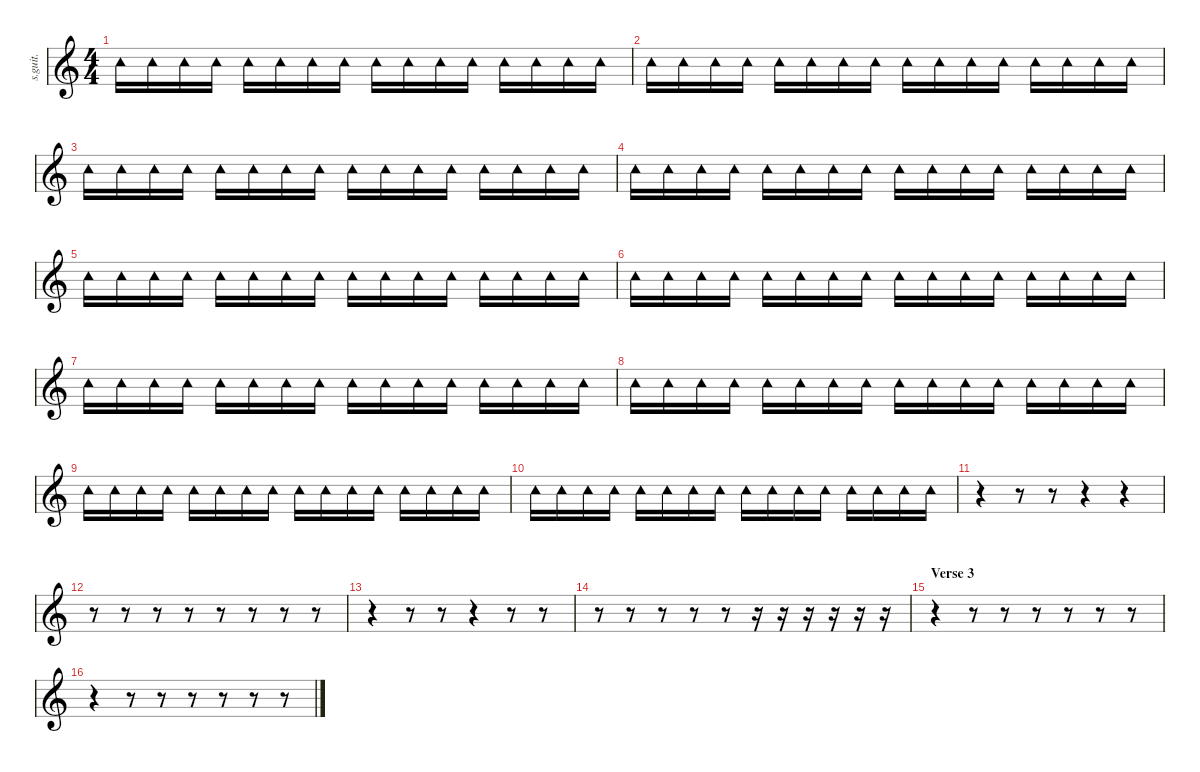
\defaultSystemsLayout 4
\hideDynamics
\bracketExtendMode nobrackets
\track ("Chad Channing - Tambourine" "s.guit.") {instrument percussion}
\staff {score}
\articulation defaults
\ts (4 4)
\tempo (133 hide)
\clef g2
\ks c "Tambourine (hit)".16{lyrics (0 "") lyrics (1 "") lyrics (2 "") lyrics (3 "") lyrics (4 "") dy f} "Tambourine (hit)".16{lyrics (0 "") lyrics (1 "") lyrics (2 "") lyrics (3 "") lyrics (4 "")} "Tambourine (hit)".16{lyrics (0 "") lyrics (1 "") lyrics (2 "") lyrics (3 "") lyrics (4 "")} "Tambourine (hit)".16{lyrics (0 "") lyrics (1 "") lyrics (2 "") lyrics (3 "") lyrics (4 "")} "Tambourine (hit)".16{lyrics (0 "") lyrics (1 "") lyrics (2 "") lyrics (3 "") lyrics (4 "")} "Tambourine (hit)".16{lyrics (0 "") lyrics (1 "") lyrics (2 "") lyrics (3 "") lyrics (4 "")} "Tambourine (hit)".16{lyrics (0 "") lyrics (1 "") lyrics (2 "") lyrics (3 "") lyrics (4 "")} "Tambourine (hit)".16{lyrics (0 "") lyrics (1 "") lyrics (2 "") lyrics (3 "") lyrics (4 "")} "Tambourine (hit)".16{lyrics (0 "") lyrics (1 "") lyrics (2 "") lyrics (3 "") lyrics (4 "")} "Tambourine (hit)".16{lyrics (0 "") lyrics (1 "") lyrics (2 "") lyrics (3 "") lyrics (4 "")} "Tambourine (hit)".16{lyrics (0 "") lyrics (1 "") lyrics (2 "") lyrics (3 "") lyrics (4 "")} "Tambourine (hit)".16{lyrics (0 "") lyrics (1 "") lyrics (2 "") lyrics (3 "") lyrics (4 "")} "Tambourine (hit)".16{lyrics (0 "") lyrics (1 "") lyrics (2 "") lyrics (3 "") lyrics (4 "")} "Tambourine (hit)".16{lyrics (0 "") lyrics (1 "") lyrics (2 "") lyrics (3 "") lyrics (4 "")} "Tambourine (hit)".16{lyrics (0 "") lyrics (1 "") lyrics (2 "") lyrics (3 "") lyrics (4 "")} "Tambourine (hit)".16{lyrics (0 "") lyrics (1 "") lyrics (2 "") lyrics (3 "") lyrics (4 "")}
|
"Tambourine (hit)".16{lyrics (0 "") lyrics (1 "") lyrics (2 "") lyrics (3 "") lyrics (4 "")} "Tambourine (hit)".16{lyrics (0 "") lyrics (1 "") lyrics (2 "") lyrics (3 "") lyrics (4 "")} "Tambourine (hit)".16{lyrics (0 "") lyrics (1 "") lyrics (2 "") lyrics (3 "") lyrics (4 "")} "Tambourine (hit)".16{lyrics (0 "") lyrics (1 "") lyrics (2 "") lyrics (3 "") lyrics (4 "")} "Tambourine (hit)".16{lyrics (0 "") lyrics (1 "") lyrics (2 "") lyrics (3 "") lyrics (4 "")} "Tambourine (hit)".16{lyrics (0 "") lyrics (1 "") lyrics (2 "") lyrics (3 "") lyrics (4 "")} "Tambourine (hit)".16{lyrics (0 "") lyrics (1 "") lyrics (2 "") lyrics (3 "") lyrics (4 "")} "Tambourine (hit)".16{lyrics (0 "") lyrics (1 "") lyrics (2 "") lyrics (3 "") lyrics (4 "")} "Tambourine (hit)".16{lyrics (0 "") lyrics (1 "") lyrics (2 "") lyrics (3 "") lyrics (4 "")} "Tambourine (hit)".16{lyrics (0 "") lyrics (1 "") lyrics (2 "") lyrics (3 "") lyrics (4 "")} "Tambourine (hit)".16{lyrics (0 "") lyrics (1 "") lyrics (2 "") lyrics (3 "") lyrics (4 "")} "Tambourine (hit)".16{lyrics (0 "") lyrics (1 "") lyrics (2 "") lyrics (3 "") lyrics (4 "")} "Tambourine (hit)".16{lyrics (0 "") lyrics (1 "") lyrics (2 "") lyrics (3 "") lyrics (4 "")} "Tambourine (hit)".16{lyrics (0 "") lyrics (1 "") lyrics (2 "") lyrics (3 "") lyrics (4 "")} "Tambourine (hit)".16{lyrics (0 "") lyrics (1 "") lyrics (2 "") lyrics (3 "") lyrics (4 "")} "Tambourine (hit)".16{lyrics (0 "") lyrics (1 "") lyrics (2 "") lyrics (3 "") lyrics (4 "")} |
"Tambourine (hit)".16{lyrics (0 "") lyrics (1 "") lyrics (2 "") lyrics (3 "") lyrics (4 "")} "Tambourine (hit)".16{lyrics (0 "") lyrics (1 "") lyrics (2 "") lyrics (3 "") lyrics (4 "")} "Tambourine (hit)".16{lyrics (0 "") lyrics (1 "") lyrics (2 "") lyrics (3 "") lyrics (4 "")} "Tambourine (hit)".16{lyrics (0 "") lyrics (1 "") lyrics (2 "") lyrics (3 "") lyrics (4 "")} "Tambourine (hit)".16{lyrics (0 "") lyrics (1 "") lyrics (2 "") lyrics (3 "") lyrics (4 "")} "Tambourine (hit)".16{lyrics (0 "") lyrics (1 "") lyrics (2 "") lyrics (3 "") lyrics (4 "")} "Tambourine (hit)".16{lyrics (0 "") lyrics (1 "") lyrics (2 "") lyrics (3 "") lyrics (4 "")} "Tambourine (hit)".16{lyrics (0 "") lyrics (1 "") lyrics (2 "") lyrics (3 "") lyrics (4 "")} "Tambourine (hit)".16{lyrics (0 "") lyrics (1 "") lyrics (2 "") lyrics (3 "") lyrics (4 "")} "Tambourine (hit)".16{lyrics (0 "") lyrics (1 "") lyrics (2 "") lyrics (3 "") lyrics (4 "")} "Tambourine (hit)".16{lyrics (0 "") lyrics (1 "") lyrics (2 "") lyrics (3 "") lyrics (4 "")} "Tambourine (hit)".16{lyrics (0 "") lyrics (1 "") lyrics (2 "") lyrics (3 "") lyrics (4 "")} "Tambourine (hit)".16{lyrics (0 "") lyrics (1 "") lyrics (2 "") lyrics (3 "") lyrics (4 "")} "Tambourine (hit)".16{lyrics (0 "") lyrics (1 "") lyrics (2 "") lyrics (3 "") lyrics (4 "")} "Tambourine (hit)".16{lyrics (0 "") lyrics (1 "") lyrics (2 "") lyrics (3 "") lyrics (4 "")} "Tambourine (hit)".16{lyrics (0 "") lyrics (1 "") lyrics (2 "") lyrics (3 "") lyrics (4 "")} |
"Tambourine (hit)".16{lyrics (0 "") lyrics (1 "") lyrics (2 "") lyrics (3 "") lyrics (4 "")} "Tambourine (hit)".16{lyrics (0 "") lyrics (1 "") lyrics (2 "") lyrics (3 "") lyrics (4 "")} "Tambourine (hit)".16{lyrics (0 "") lyrics (1 "") lyrics (2 "") lyrics (3 "") lyrics (4 "")} "Tambourine (hit)".16{lyrics (0 "") lyrics (1 "") lyrics (2 "") lyrics (3 "") lyrics (4 "")} "Tambourine (hit)".16{lyrics (0 "") lyrics (1 "") lyrics (2 "") lyrics (3 "") lyrics (4 "")} "Tambourine (hit)".16{lyrics (0 "") lyrics (1 "") lyrics (2 "") lyrics (3 "") lyrics (4 "")} "Tambourine (hit)".16{lyrics (0 "") lyrics (1 "") lyrics (2 "") lyrics (3 "") lyrics (4 "")} "Tambourine (hit)".16{lyrics (0 "") lyrics (1 "") lyrics (2 "") lyrics (3 "") lyrics (4 "")} "Tambourine (hit)".16{lyrics (0 "") lyrics (1 "") lyrics (2 "") lyrics (3 "") lyrics (4 "")} "Tambourine (hit)".16{lyrics (0 "") lyrics (1 "") lyrics (2 "") lyrics (3 "") lyrics (4 "")} "Tambourine (hit)".16{lyrics (0 "") lyrics (1 "") lyrics (2 "") lyrics (3 "") lyrics (4 "")} "Tambourine (hit)".16{lyrics (0 "") lyrics (1 "") lyrics (2 "") lyrics (3 "") lyrics (4 "")} "Tambourine (hit)".16{lyrics (0 "") lyrics (1 "") lyrics (2 "") lyrics (3 "") lyrics (4 "")} "Tambourine (hit)".16{lyrics (0 "") lyrics (1 "") lyrics (2 "") lyrics (3 "") lyrics (4 "")} "Tambourine (hit)".16{lyrics (0 "") lyrics (1 "") lyrics (2 "") lyrics (3 "") lyrics (4 "")} "Tambourine (hit)".16{lyrics (0 "") lyrics (1 "") lyrics (2 "") lyrics (3 "") lyrics (4 "")} |
"Tambourine (hit)".16{lyrics (0 "") lyrics (1 "") lyrics (2 "") lyrics (3 "") lyrics (4 "")} "Tambourine (hit)".16{lyrics (0 "") lyrics (1 "") lyrics (2 "") lyrics (3 "") lyrics (4 "")} "Tambourine (hit)".16{lyrics (0 "") lyrics (1 "") lyrics (2 "") lyrics (3 "") lyrics (4 "")} "Tambourine (hit)".16{lyrics (0 "") lyrics (1 "") lyrics (2 "") lyrics (3 "") lyrics (4 "")} "Tambourine (hit)".16{lyrics (0 "") lyrics (1 "") lyrics (2 "") lyrics (3 "") lyrics (4 "")} "Tambourine (hit)".16{lyrics (0 "") lyrics (1 "") lyrics (2 "") lyrics (3 "") lyrics (4 "")} "Tambourine (hit)".16{lyrics (0 "") lyrics (1 "") lyrics (2 "") lyrics (3 "") lyrics (4 "")} "Tambourine (hit)".16{lyrics (0 "") lyrics (1 "") lyrics (2 "") lyrics (3 "") lyrics (4 "")} "Tambourine (hit)".16{lyrics (0 "") lyrics (1 "") lyrics (2 "") lyrics (3 "") lyrics (4 "")} "Tambourine (hit)".16{lyrics (0 "") lyrics (1 "") lyrics (2 "") lyrics (3 "") lyrics (4 "")} "Tambourine (hit)".16{lyrics (0 "") lyrics (1 "") lyrics (2 "") lyrics (3 "") lyrics (4 "")} "Tambourine (hit)".16{lyrics (0 "") lyrics (1 "") lyrics (2 "") lyrics (3 "") lyrics (4 "")} "Tambourine (hit)".16{lyrics (0 "") lyrics (1 "") lyrics (2 "") lyrics (3 "") lyrics (4 "")} "Tambourine (hit)".16{lyrics (0 "") lyrics (1 "") lyrics (2 "") lyrics (3 "") lyrics (4 "")} "Tambourine (hit)".16{lyrics (0 "") lyrics (1 "") lyrics (2 "") lyrics (3 "") lyrics (4 "")} "Tambourine (hit)".16{lyrics (0 "") lyrics (1 "") lyrics (2 "") lyrics (3 "") lyrics (4 "")} |
"Tambourine (hit)".16{lyrics (0 "") lyrics (1 "") lyrics (2 "") lyrics (3 "") lyrics (4 "")} "Tambourine (hit)".16{lyrics (0 "") lyrics (1 "") lyrics (2 "") lyrics (3 "") lyrics (4 "")} "Tambourine (hit)".16{lyrics (0 "") lyrics (1 "") lyrics (2 "") lyrics (3 "") lyrics (4 "")} "Tambourine (hit)".16{lyrics (0 "") lyrics (1 "") lyrics (2 "") lyrics (3 "") lyrics (4 "")} "Tambourine (hit)".16{lyrics (0 "") lyrics (1 "") lyrics (2 "") lyrics (3 "") lyrics (4 "")} "Tambourine (hit)".16{lyrics (0 "") lyrics (1 "") lyrics (2 "") lyrics (3 "") lyrics (4 "")} "Tambourine (hit)".16{lyrics (0 "") lyrics (1 "") lyrics (2 "") lyrics (3 "") lyrics (4 "")} "Tambourine (hit)".16{lyrics (0 "") lyrics (1 "") lyrics (2 "") lyrics (3 "") lyrics (4 "")} "Tambourine (hit)".16{lyrics (0 "") lyrics (1 "") lyrics (2 "") lyrics (3 "") lyrics (4 "")} "Tambourine (hit)".16{lyrics (0 "") lyrics (1 "") lyrics (2 "") lyrics (3 "") lyrics (4 "")} "Tambourine (hit)".16{lyrics (0 "") lyrics (1 "") lyrics (2 "") lyrics (3 "") lyrics (4 "")} "Tambourine (hit)".16{lyrics (0 "") lyrics (1 "") lyrics (2 "") lyrics (3 "") lyrics (4 "")} "Tambourine (hit)".16{lyrics (0 "") lyrics (1 "") lyrics (2 "") lyrics (3 "") lyrics (4 "")} "Tambourine (hit)".16{lyrics (0 "") lyrics (1 "") lyrics (2 "") lyrics (3 "") lyrics (4 "")} "Tambourine (hit)".16{lyrics (0 "") lyrics (1 "") lyrics (2 "") lyrics (3 "") lyrics (4 "")} "Tambourine (hit)".16{lyrics (0 "") lyrics (1 "") lyrics (2 "") lyrics (3 "") lyrics (4 "")} |
"Tambourine (hit)".16{lyrics (0 "") lyrics (1 "") lyrics (2 "") lyrics (3 "") lyrics (4 "")} "Tambourine (hit)".16{lyrics (0 "") lyrics (1 "") lyrics (2 "") lyrics (3 "") lyrics (4 "")} "Tambourine (hit)".16{lyrics (0 "") lyrics (1 "") lyrics (2 "") lyrics (3 "") lyrics (4 "")} "Tambourine (hit)".16{lyrics (0 "") lyrics (1 "") lyrics (2 "") lyrics (3 "") lyrics (4 "")} "Tambourine (hit)".16{lyrics (0 "") lyrics (1 "") lyrics (2 "") lyrics (3 "") lyrics (4 "")} "Tambourine (hit)".16{lyrics (0 "") lyrics (1 "") lyrics (2 "") lyrics (3 "") lyrics (4 "")} "Tambourine (hit)".16{lyrics (0 "") lyrics (1 "") lyrics (2 "") lyrics (3 "") lyrics (4 "")} "Tambourine (hit)".16{lyrics (0 "") lyrics (1 "") lyrics (2 "") lyrics (3 "") lyrics (4 "")} "Tambourine (hit)".16{lyrics (0 "") lyrics (1 "") lyrics (2 "") lyrics (3 "") lyrics (4 "")} "Tambourine (hit)".16{lyrics (0 "") lyrics (1 "") lyrics (2 "") lyrics (3 "") lyrics (4 "")} "Tambourine (hit)".16{lyrics (0 "") lyrics (1 "") lyrics (2 "") lyrics (3 "") lyrics (4 "")} "Tambourine (hit)".16{lyrics (0 "") lyrics (1 "") lyrics (2 "") lyrics (3 "") lyrics (4 "")} "Tambourine (hit)".16{lyrics (0 "") lyrics (1 "") lyrics (2 "") lyrics (3 "") lyrics (4 "")} "Tambourine (hit)".16{lyrics (0 "") lyrics (1 "") lyrics (2 "") lyrics (3 "") lyrics (4 "")} "Tambourine (hit)".16{lyrics (0 "") lyrics (1 "") lyrics (2 "") lyrics (3 "") lyrics (4 "")} "Tambourine (hit)".16{lyrics (0 "") lyrics (1 "") lyrics (2 "") lyrics (3 "") lyrics (4 "")} |
"Tambourine (hit)".16{lyrics (0 "") lyrics (1 "") lyrics (2 "") lyrics (3 "") lyrics (4 "")} "Tambourine (hit)".16{lyrics (0 "") lyrics (1 "") lyrics (2 "") lyrics (3 "") lyrics (4 "")} "Tambourine (hit)".16{lyrics (0 "") lyrics (1 "") lyrics (2 "") lyrics (3 "") lyrics (4 "")} "Tambourine (hit)".16{lyrics (0 "") lyrics (1 "") lyrics (2 "") lyrics (3 "") lyrics (4 "")} "Tambourine (hit)".16{lyrics (0 "") lyrics (1 "") lyrics (2 "") lyrics (3 "") lyrics (4 "")} "Tambourine (hit)".16{lyrics (0 "") lyrics (1 "") lyrics (2 "") lyrics (3 "") lyrics (4 "")} "Tambourine (hit)".16{lyrics (0 "") lyrics (1 "") lyrics (2 "") lyrics (3 "") lyrics (4 "")} "Tambourine (hit)".16{lyrics (0 "") lyrics (1 "") lyrics (2 "") lyrics (3 "") lyrics (4 "")} "Tambourine (hit)".16{lyrics (0 "") lyrics (1 "") lyrics (2 "") lyrics (3 "") lyrics (4 "")} "Tambourine (hit)".16{lyrics (0 "") lyrics (1 "") lyrics (2 "") lyrics (3 "") lyrics (4 "")} "Tambourine (hit)".16{lyrics (0 "") lyrics (1 "") lyrics (2 "") lyrics (3 "") lyrics (4 "")} "Tambourine (hit)".16{lyrics (0 "") lyrics (1 "") lyrics (2 "") lyrics (3 "") lyrics (4 "")} "Tambourine (hit)".16{lyrics (0 "") lyrics (1 "") lyrics (2 "") lyrics (3 "") lyrics (4 "")} "Tambourine (hit)".16{lyrics (0 "") lyrics (1 "") lyrics (2 "") lyrics (3 "") lyrics (4 "")} "Tambourine (hit)".16{lyrics (0 "") lyrics (1 "") lyrics (2 "") lyrics (3 "") lyrics (4 "")} "Tambourine (hit)".16{lyrics (0 "") lyrics (1 "") lyrics (2 "") lyrics (3 "") lyrics (4 "")} |
"Tambourine (hit)".16{lyrics (0 "") lyrics (1 "") lyrics (2 "") lyrics (3 "") lyrics (4 "")} "Tambourine (hit)".16{lyrics (0 "") lyrics (1 "") lyrics (2 "") lyrics (3 "") lyrics (4 "")} "Tambourine (hit)".16{lyrics (0 "") lyrics (1 "") lyrics (2 "") lyrics (3 "") lyrics (4 "")} "Tambourine (hit)".16{lyrics (0 "") lyrics (1 "") lyrics (2 "") lyrics (3 "") lyrics (4 "")} "Tambourine (hit)".16{lyrics (0 "") lyrics (1 "") lyrics (2 "") lyrics (3 "") lyrics (4 "")} "Tambourine (hit)".16{lyrics (0 "") lyrics (1 "") lyrics (2 "") lyrics (3 "") lyrics (4 "")} "Tambourine (hit)".16{lyrics (0 "") lyrics (1 "") lyrics (2 "") lyrics (3 "") lyrics (4 "")} "Tambourine (hit)".16{lyrics (0 "") lyrics (1 "") lyrics (2 "") lyrics (3 "") lyrics (4 "")} "Tambourine (hit)".16{lyrics (0 "") lyrics (1 "") lyrics (2 "") lyrics (3 "") lyrics (4 "")} "Tambourine (hit)".16{lyrics (0 "") lyrics (1 "") lyrics (2 "") lyrics (3 "") lyrics (4 "")} "Tambourine (hit)".16{lyrics (0 "") lyrics (1 "") lyrics (2 "") lyrics (3 "") lyrics (4 "")} "Tambourine (hit)".16{lyrics (0 "") lyrics (1 "") lyrics (2 "") lyrics (3 "") lyrics (4 "")} "Tambourine (hit)".16{lyrics (0 "") lyrics (1 "") lyrics (2 "") lyrics (3 "") lyrics (4 "")} "Tambourine (hit)".16{lyrics (0 "") lyrics (1 "") lyrics (2 "") lyrics (3 "") lyrics (4 "")} "Tambourine (hit)".16{lyrics (0 "") lyrics (1 "") lyrics (2 "") lyrics (3 "") lyrics (4 "")} "Tambourine (hit)".16{lyrics (0 "") lyrics (1 "") lyrics (2 "") lyrics (3 "") lyrics (4 "")} |
"Tambourine (hit)".16{lyrics (0 "") lyrics (1 "") lyrics (2 "") lyrics (3 "") lyrics (4 "")} "Tambourine (hit)".16{lyrics (0 "") lyrics (1 "") lyrics (2 "") lyrics (3 "") lyrics (4 "")} "Tambourine (hit)".16{lyrics (0 "") lyrics (1 "") lyrics (2 "") lyrics (3 "") lyrics (4 "")} "Tambourine (hit)".16{lyrics (0 "") lyrics (1 "") lyrics (2 "") lyrics (3 "") lyrics (4 "")} "Tambourine (hit)".16{lyrics (0 "") lyrics (1 "") lyrics (2 "") lyrics (3 "") lyrics (4 "")} "Tambourine (hit)".16{lyrics (0 "") lyrics (1 "") lyrics (2 "") lyrics (3 "") lyrics (4 "")} "Tambourine (hit)".16{lyrics (0 "") lyrics (1 "") lyrics (2 "") lyrics (3 "") lyrics (4 "")} "Tambourine (hit)".16{lyrics (0 "") lyrics (1 "") lyrics (2 "") lyrics (3 "") lyrics (4 "")} "Tambourine (hit)".16{lyrics (0 "") lyrics (1 "") lyrics (2 "") lyrics (3 "") lyrics (4 "")} "Tambourine (hit)".16{lyrics (0 "") lyrics (1 "") lyrics (2 "") lyrics (3 "") lyrics (4 "")} "Tambourine (hit)".16{lyrics (0 "") lyrics (1 "") lyrics (2 "") lyrics (3 "") lyrics (4 "")} "Tambourine (hit)".16{lyrics (0 "") lyrics (1 "") lyrics (2 "") lyrics (3 "") lyrics (4 "")} "Tambourine (hit)".16{lyrics (0 "") lyrics (1 "") lyrics (2 "") lyrics (3 "") lyrics (4 "")} "Tambourine (hit)".16{lyrics (0 "") lyrics (1 "") lyrics (2 "") lyrics (3 "") lyrics (4 "")} "Tambourine (hit)".16{lyrics (0 "") lyrics (1 "") lyrics (2 "") lyrics (3 "") lyrics (4 "")} "Tambourine (hit)".16{lyrics (0 "") lyrics (1 "") lyrics (2 "") lyrics (3 "") lyrics (4 "")} |
r.4 r.8 r.8 r.4 r.4 |
r.8 r.8 r.8 r.8 r.8 r.8 r.8 r.8 |
r.4 r.8 r.8 r.4 r.8 r.8 |
r.8 r.8 r.8 r.8 r.8 r.16 r.16 r.16 r.16 r.16 r.16 |
\section ("" "Verse 3")
r.4 r.8 r.8 r.8 r.8 r.8 r.8 |
r.4 r.8 r.8 r.8 r.8 r.8 r.8
